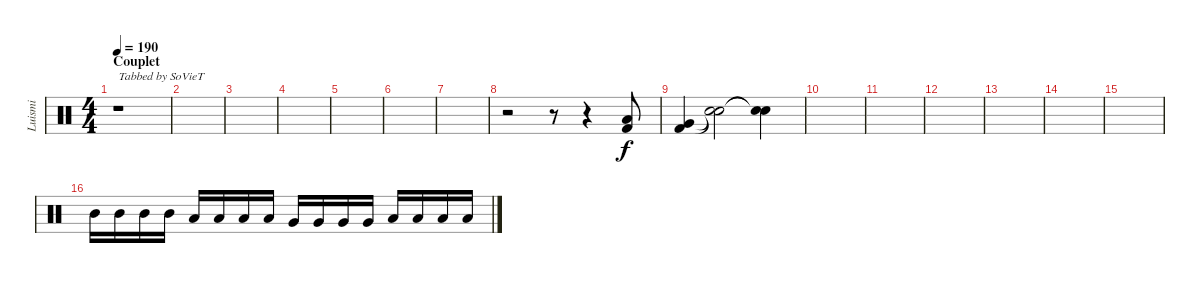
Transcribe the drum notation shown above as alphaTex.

\track ("Luismi" "Luismi") {instrument percussion}
\staff {score}
\articulation defaults
\ts (4 4)
\section ("" "Couplet")
\tempo 190
\clef neutral
\ks c
r.1{txt "Tabbed by SoVieT" dy f} |
|
|
|
|
|
|
r.2 r.8 r.4 ("Low Tom (hit)" "Kick (hit) 2").8 |
("Very Low Tom (hit)" "Kick (hit) 2").4 ("Snare (hit)"{t} "Snare (hit)"{t}).2 ("Snare (hit)"{t} "Snare (hit)"{t}).4 |
|
|
|
|
|
|
"Mid Tom (hit)".16 "Mid Tom (hit)".16 "Mid Tom (hit)".16 "Mid Tom (hit)".16 "Low Tom (hit)".16 "Low Tom (hit)".16 "Low Tom (hit)".16 "Low Tom (hit)".16 "Very Low Tom (hit)".16 "Very Low Tom (hit)".16 "Very Low Tom (hit)".16 "Very Low Tom (hit)".16 "Low Floor Tom (hit)".16 "Low Floor Tom (hit)".16 "Low Floor Tom (hit)".16 "Low Floor Tom (hit)".16
